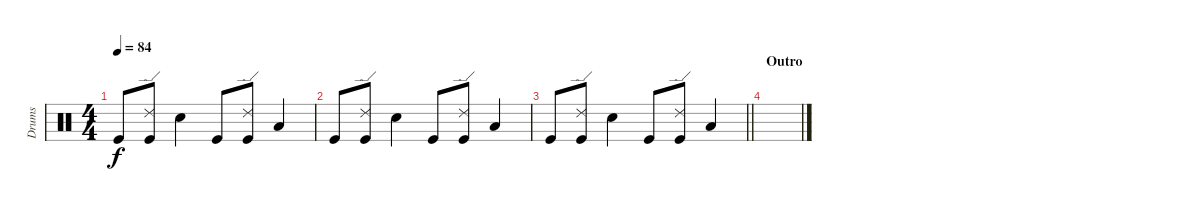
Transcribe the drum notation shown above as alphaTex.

\track ("Drums" "Drums") {instrument percussion}
\staff {score}
\articulation defaults
\ts (4 4)
\tempo 84
\clef neutral
\ks c "Kick (hit)".8{dy f}
("Kick (hit)" "Ride (edge) 2").8 "Snare (hit) 2".4 "Kick (hit)".8 ("Kick (hit)" "Ride (edge) 2").8 "Low Tom (hit)".4 |
"Kick (hit)".8 ("Kick (hit)" "Ride (edge) 2").8 "Snare (hit) 2".4 "Kick (hit)".8 ("Kick (hit)" "Ride (edge) 2").8 "Low Tom (hit)".4 |
\barLineRight lightlight "Kick (hit)".8
("Kick (hit)" "Ride (edge) 2").8 "Snare (hit) 2".4 "Kick (hit)".8 ("Kick (hit)" "Ride (edge) 2").8 "Low Tom (hit)".4 |
\section ("" "Outro")
